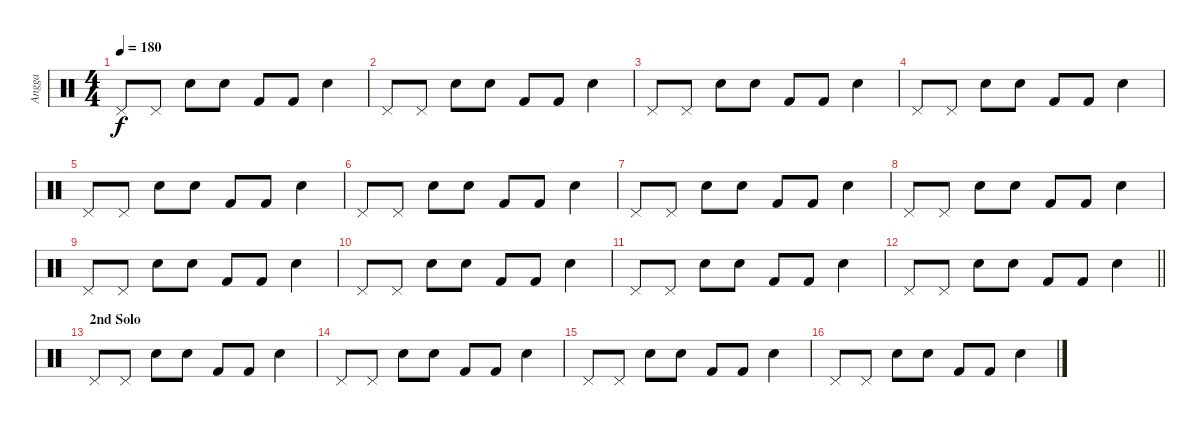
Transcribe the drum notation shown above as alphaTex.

\track ("Angga" "Angga") {instrument percussion}
\staff {score}
\articulation defaults
\ts (4 4)
\tempo 180
\clef neutral
\ks c "Pedal Hi-Hat (hit)".8{dy f} "Pedal Hi-Hat (hit)".8 "Snare (hit) 2".8 "Snare (hit) 2".8 "Kick (hit) 2".8 "Kick (hit) 2".8 "Snare (hit) 2".4
|
"Pedal Hi-Hat (hit)".8 "Pedal Hi-Hat (hit)".8 "Snare (hit) 2".8 "Snare (hit) 2".8 "Kick (hit) 2".8 "Kick (hit) 2".8 "Snare (hit) 2".4 |
"Pedal Hi-Hat (hit)".8 "Pedal Hi-Hat (hit)".8 "Snare (hit) 2".8 "Snare (hit) 2".8 "Kick (hit) 2".8 "Kick (hit) 2".8 "Snare (hit) 2".4 |
"Pedal Hi-Hat (hit)".8 "Pedal Hi-Hat (hit)".8 "Snare (hit) 2".8 "Snare (hit) 2".8 "Kick (hit) 2".8 "Kick (hit) 2".8 "Snare (hit) 2".4 |
"Pedal Hi-Hat (hit)".8 "Pedal Hi-Hat (hit)".8 "Snare (hit) 2".8 "Snare (hit) 2".8 "Kick (hit) 2".8 "Kick (hit) 2".8 "Snare (hit) 2".4 |
"Pedal Hi-Hat (hit)".8 "Pedal Hi-Hat (hit)".8 "Snare (hit) 2".8 "Snare (hit) 2".8 "Kick (hit) 2".8 "Kick (hit) 2".8 "Snare (hit) 2".4 |
"Pedal Hi-Hat (hit)".8 "Pedal Hi-Hat (hit)".8 "Snare (hit) 2".8 "Snare (hit) 2".8 "Kick (hit) 2".8 "Kick (hit) 2".8 "Snare (hit) 2".4 |
"Pedal Hi-Hat (hit)".8 "Pedal Hi-Hat (hit)".8 "Snare (hit) 2".8 "Snare (hit) 2".8 "Kick (hit) 2".8 "Kick (hit) 2".8 "Snare (hit) 2".4 |
"Pedal Hi-Hat (hit)".8 "Pedal Hi-Hat (hit)".8 "Snare (hit) 2".8 "Snare (hit) 2".8 "Kick (hit) 2".8 "Kick (hit) 2".8 "Snare (hit) 2".4 |
"Pedal Hi-Hat (hit)".8 "Pedal Hi-Hat (hit)".8 "Snare (hit) 2".8 "Snare (hit) 2".8 "Kick (hit) 2".8 "Kick (hit) 2".8 "Snare (hit) 2".4 |
"Pedal Hi-Hat (hit)".8 "Pedal Hi-Hat (hit)".8 "Snare (hit) 2".8 "Snare (hit) 2".8 "Kick (hit) 2".8 "Kick (hit) 2".8 "Snare (hit) 2".4 |
\barLineRight lightlight "Pedal Hi-Hat (hit)".8 "Pedal Hi-Hat (hit)".8 "Snare (hit) 2".8 "Snare (hit) 2".8 "Kick (hit) 2".8 "Kick (hit) 2".8 "Snare (hit) 2".4
|
\section ("" "2nd Solo")
"Pedal Hi-Hat (hit)".8 "Pedal Hi-Hat (hit)".8 "Snare (hit) 2".8 "Snare (hit) 2".8 "Kick (hit) 2".8 "Kick (hit) 2".8 "Snare (hit) 2".4 |
"Pedal Hi-Hat (hit)".8 "Pedal Hi-Hat (hit)".8 "Snare (hit) 2".8 "Snare (hit) 2".8 "Kick (hit) 2".8 "Kick (hit) 2".8 "Snare (hit) 2".4 |
"Pedal Hi-Hat (hit)".8 "Pedal Hi-Hat (hit)".8 "Snare (hit) 2".8 "Snare (hit) 2".8 "Kick (hit) 2".8 "Kick (hit) 2".8 "Snare (hit) 2".4 |
"Pedal Hi-Hat (hit)".8 "Pedal Hi-Hat (hit)".8 "Snare (hit) 2".8 "Snare (hit) 2".8 "Kick (hit) 2".8 "Kick (hit) 2".8 "Snare (hit) 2".4
